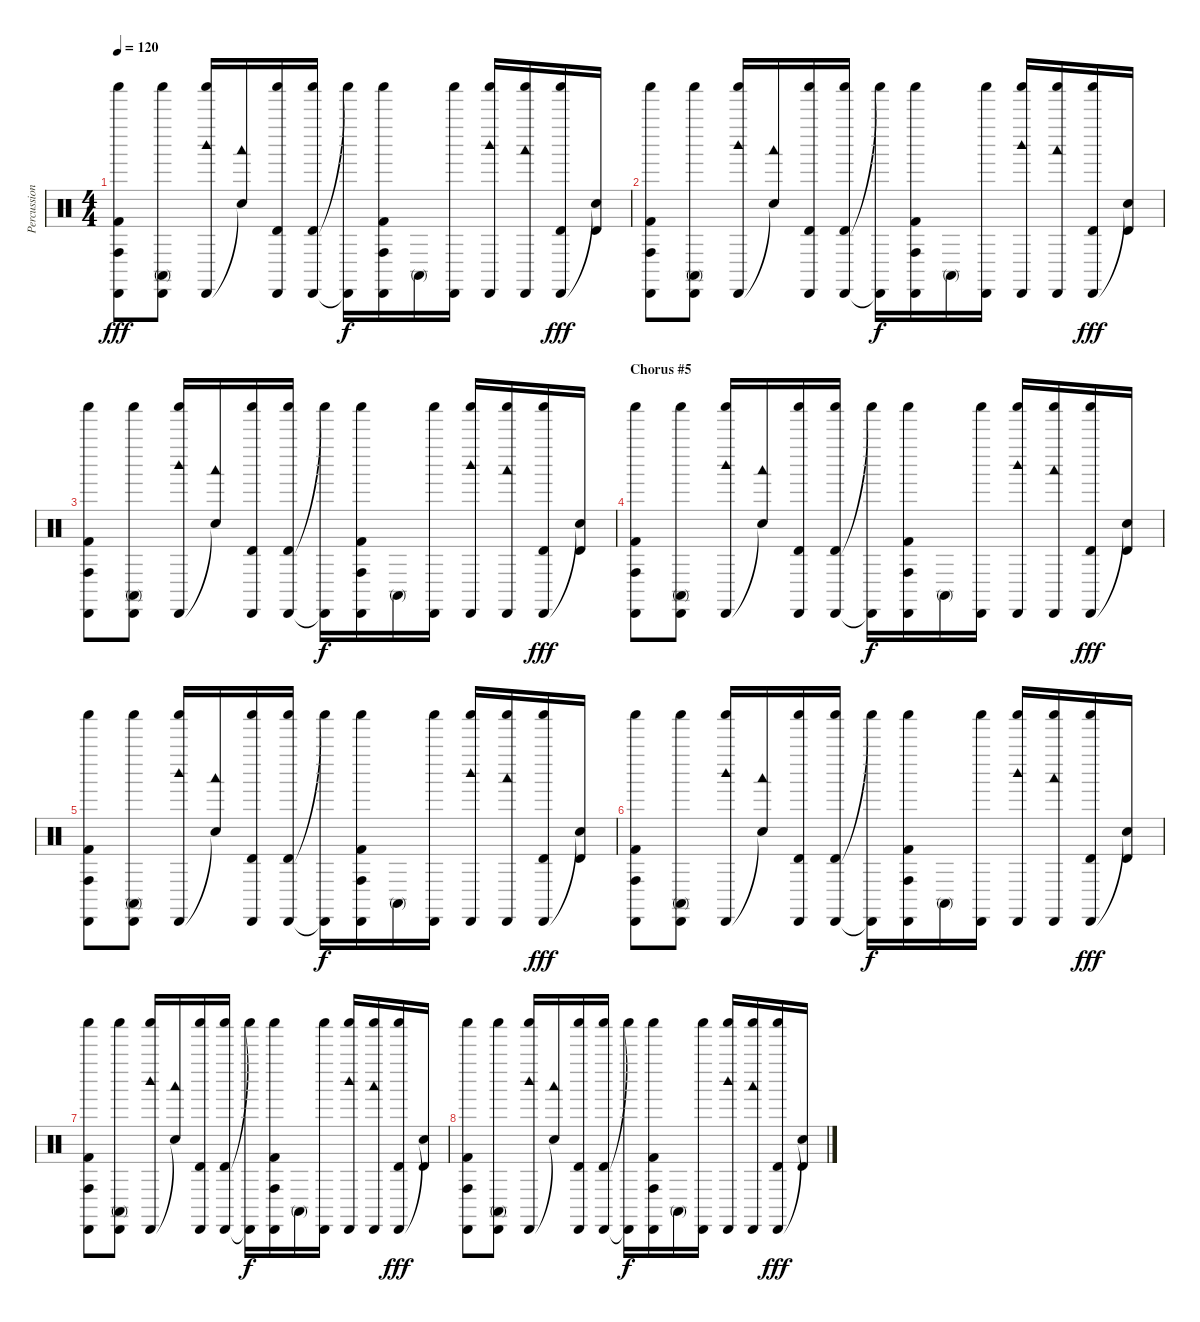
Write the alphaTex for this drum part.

\track ("Percussion" "Percussion") {instrument percussion}
\staff {score}
\articulation defaults
\ts (4 4)
\tempo 120
\clef neutral
\ks c
("Cabasa (hit)" "Conga high (hit)" "Kick (hit) 2" "Shaker (hit)").8{dy fff} ("Cabasa (hit)" "Conga high (mute)" "Shaker (hit)").8 ("Cabasa (hit)" "Woodblock high (hit)" "Shaker (hit)").16 ("Snare (hit)"{t} "Woodblock low (hit)").16 ("Cabasa (hit)" "Timbale high (hit)" "Shaker (hit)").16 ("Cabasa (hit)" "Timbale high (hit)" "Shaker (hit)").16 ("Cabasa (hit)"{t} "Shaker (hit)"{t}).16{dy f} ("Cabasa (hit)" "Conga high (hit)" "Kick (hit) 2" "Shaker (hit)").16 "Conga high (mute)".16 ("Cabasa (hit)" "Shaker (hit)").16 ("Cabasa (hit)" "Woodblock high (hit)" "Shaker (hit)").16 ("Cabasa (hit)" "Woodblock low (hit)" "Shaker (hit)").16 ("Cabasa (hit)" "Timbale high (hit)" "Shaker (hit)").16{dy fff} ("Snare (hit)"{t} "Timbale high (hit)").16 |
("Cabasa (hit)" "Conga high (hit)" "Kick (hit) 2" "Shaker (hit)").8 ("Cabasa (hit)" "Conga high (mute)" "Shaker (hit)").8 ("Cabasa (hit)" "Woodblock high (hit)" "Shaker (hit)").16 ("Snare (hit)"{t} "Woodblock low (hit)").16 ("Cabasa (hit)" "Timbale high (hit)" "Shaker (hit)").16 ("Cabasa (hit)" "Timbale high (hit)" "Shaker (hit)").16 ("Cabasa (hit)"{t} "Shaker (hit)"{t}).16{dy f} ("Cabasa (hit)" "Conga high (hit)" "Kick (hit) 2" "Shaker (hit)").16 "Conga high (mute)".16 ("Cabasa (hit)" "Shaker (hit)").16 ("Cabasa (hit)" "Woodblock high (hit)" "Shaker (hit)").16 ("Cabasa (hit)" "Woodblock low (hit)" "Shaker (hit)").16 ("Cabasa (hit)" "Timbale high (hit)" "Shaker (hit)").16{dy fff} ("Snare (hit)"{t} "Timbale high (hit)").16 |
("Cabasa (hit)" "Conga high (hit)" "Kick (hit) 2" "Shaker (hit)").8 ("Cabasa (hit)" "Conga high (mute)" "Shaker (hit)").8 ("Cabasa (hit)" "Woodblock high (hit)" "Shaker (hit)").16 ("Snare (hit)"{t} "Woodblock low (hit)").16 ("Cabasa (hit)" "Timbale high (hit)" "Shaker (hit)").16 ("Cabasa (hit)" "Timbale high (hit)" "Shaker (hit)").16 ("Cabasa (hit)"{t} "Shaker (hit)"{t}).16{dy f} ("Cabasa (hit)" "Conga high (hit)" "Kick (hit) 2" "Shaker (hit)").16 "Conga high (mute)".16 ("Cabasa (hit)" "Shaker (hit)").16 ("Cabasa (hit)" "Woodblock high (hit)" "Shaker (hit)").16 ("Cabasa (hit)" "Woodblock low (hit)" "Shaker (hit)").16 ("Cabasa (hit)" "Timbale high (hit)" "Shaker (hit)").16{dy fff} ("Snare (hit)"{t} "Timbale high (hit)").16 |
\section ("" "Chorus #5")
("Cabasa (hit)" "Conga high (hit)" "Kick (hit) 2" "Shaker (hit)").8 ("Cabasa (hit)" "Conga high (mute)" "Shaker (hit)").8 ("Cabasa (hit)" "Woodblock high (hit)" "Shaker (hit)").16 ("Snare (hit)"{t} "Woodblock low (hit)").16 ("Cabasa (hit)" "Timbale high (hit)" "Shaker (hit)").16 ("Cabasa (hit)" "Timbale high (hit)" "Shaker (hit)").16 ("Cabasa (hit)"{t} "Shaker (hit)"{t}).16{dy f} ("Cabasa (hit)" "Conga high (hit)" "Kick (hit) 2" "Shaker (hit)").16 "Conga high (mute)".16 ("Cabasa (hit)" "Shaker (hit)").16 ("Cabasa (hit)" "Woodblock high (hit)" "Shaker (hit)").16 ("Cabasa (hit)" "Woodblock low (hit)" "Shaker (hit)").16 ("Cabasa (hit)" "Timbale high (hit)" "Shaker (hit)").16{dy fff} ("Snare (hit)"{t} "Timbale high (hit)").16 |
("Cabasa (hit)" "Conga high (hit)" "Kick (hit) 2" "Shaker (hit)").8 ("Cabasa (hit)" "Conga high (mute)" "Shaker (hit)").8 ("Cabasa (hit)" "Woodblock high (hit)" "Shaker (hit)").16 ("Snare (hit)"{t} "Woodblock low (hit)").16 ("Cabasa (hit)" "Timbale high (hit)" "Shaker (hit)").16 ("Cabasa (hit)" "Timbale high (hit)" "Shaker (hit)").16 ("Cabasa (hit)"{t} "Shaker (hit)"{t}).16{dy f} ("Cabasa (hit)" "Conga high (hit)" "Kick (hit) 2" "Shaker (hit)").16 "Conga high (mute)".16 ("Cabasa (hit)" "Shaker (hit)").16 ("Cabasa (hit)" "Woodblock high (hit)" "Shaker (hit)").16 ("Cabasa (hit)" "Woodblock low (hit)" "Shaker (hit)").16 ("Cabasa (hit)" "Timbale high (hit)" "Shaker (hit)").16{dy fff} ("Snare (hit)"{t} "Timbale high (hit)").16 |
("Cabasa (hit)" "Conga high (hit)" "Kick (hit) 2" "Shaker (hit)").8 ("Cabasa (hit)" "Conga high (mute)" "Shaker (hit)").8 ("Cabasa (hit)" "Woodblock high (hit)" "Shaker (hit)").16 ("Snare (hit)"{t} "Woodblock low (hit)").16 ("Cabasa (hit)" "Timbale high (hit)" "Shaker (hit)").16 ("Cabasa (hit)" "Timbale high (hit)" "Shaker (hit)").16 ("Cabasa (hit)"{t} "Shaker (hit)"{t}).16{dy f} ("Cabasa (hit)" "Conga high (hit)" "Kick (hit) 2" "Shaker (hit)").16 "Conga high (mute)".16 ("Cabasa (hit)" "Shaker (hit)").16 ("Cabasa (hit)" "Woodblock high (hit)" "Shaker (hit)").16 ("Cabasa (hit)" "Woodblock low (hit)" "Shaker (hit)").16 ("Cabasa (hit)" "Timbale high (hit)" "Shaker (hit)").16{dy fff} ("Snare (hit)"{t} "Timbale high (hit)").16 |
("Cabasa (hit)" "Conga high (hit)" "Kick (hit) 2" "Shaker (hit)").8 ("Cabasa (hit)" "Conga high (mute)" "Shaker (hit)").8 ("Cabasa (hit)" "Woodblock high (hit)" "Shaker (hit)").16 ("Snare (hit)"{t} "Woodblock low (hit)").16 ("Cabasa (hit)" "Timbale high (hit)" "Shaker (hit)").16 ("Cabasa (hit)" "Timbale high (hit)" "Shaker (hit)").16 ("Cabasa (hit)"{t} "Shaker (hit)"{t}).16{dy f} ("Cabasa (hit)" "Conga high (hit)" "Kick (hit) 2" "Shaker (hit)").16 "Conga high (mute)".16 ("Cabasa (hit)" "Shaker (hit)").16 ("Cabasa (hit)" "Woodblock high (hit)" "Shaker (hit)").16 ("Cabasa (hit)" "Woodblock low (hit)" "Shaker (hit)").16 ("Cabasa (hit)" "Timbale high (hit)" "Shaker (hit)").16{dy fff} ("Snare (hit)"{t} "Timbale high (hit)").16 |
("Cabasa (hit)" "Conga high (hit)" "Kick (hit) 2" "Shaker (hit)").8 ("Cabasa (hit)" "Conga high (mute)" "Shaker (hit)").8 ("Cabasa (hit)" "Woodblock high (hit)" "Shaker (hit)").16 ("Snare (hit)"{t} "Woodblock low (hit)").16 ("Cabasa (hit)" "Timbale high (hit)" "Shaker (hit)").16 ("Cabasa (hit)" "Timbale high (hit)" "Shaker (hit)").16 ("Cabasa (hit)"{t} "Shaker (hit)"{t}).16{dy f} ("Cabasa (hit)" "Conga high (hit)" "Kick (hit) 2" "Shaker (hit)").16 "Conga high (mute)".16 ("Cabasa (hit)" "Shaker (hit)").16 ("Cabasa (hit)" "Woodblock high (hit)" "Shaker (hit)").16 ("Cabasa (hit)" "Woodblock low (hit)" "Shaker (hit)").16 ("Cabasa (hit)" "Timbale high (hit)" "Shaker (hit)").16{dy fff} ("Snare (hit)"{t} "Timbale high (hit)").16
